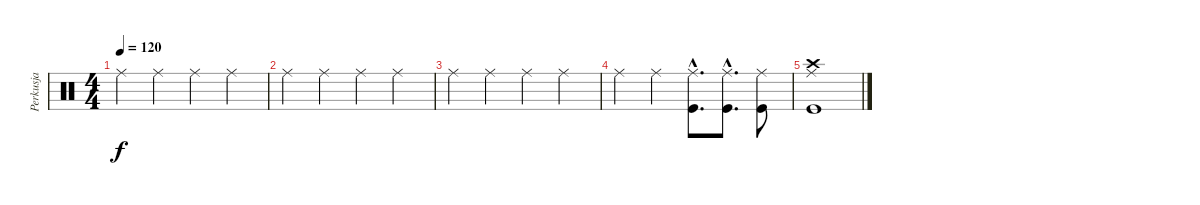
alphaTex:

\track ("Perkusja" "Perkusja") {instrument percussion}
\staff {score}
\articulation defaults
\ts (4 4)
\tempo 120
\clef neutral
\ks c "Ride (middle)".4{dy f} "Ride (middle)".4 "Ride (middle)".4 "Ride (middle)".4
|
"Ride (middle)".4 "Ride (middle)".4 "Ride (middle)".4 "Ride (middle)".4 |
"Ride (middle)".4 "Ride (middle)".4 "Ride (middle)".4 "Ride (middle)".4 |
"Ride (middle)".4 "Ride (middle)".4 ("Ride (middle)"{hac} "Kick (hit)"{hac}).8{d} ("Ride (middle)"{hac} "Kick (hit)"{hac}).8{d} ("Ride (middle)" "Kick (hit)").8 |
("Ride (middle)" "Crash high (hit)" "Kick (hit)").1
